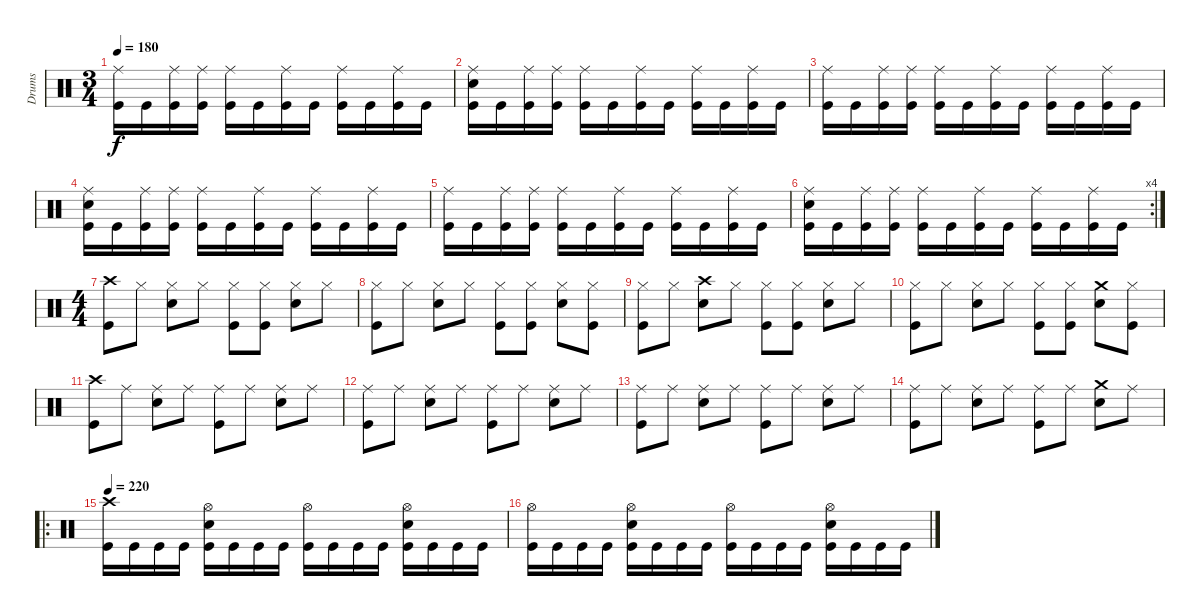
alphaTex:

\track ("Drums" "Drums") {instrument percussion}
\staff {score}
\articulation defaults
\ts (3 4)
\tempo 180
\clef neutral
\ks c
("Ride (middle)" "Kick (hit)").16{dy f} "Kick (hit)".16 ("Ride (middle)" "Kick (hit)").16 ("Ride (middle)" "Kick (hit)").16 ("Ride (middle)" "Kick (hit)").16 "Kick (hit)".16 ("Ride (middle)" "Kick (hit)").16 "Kick (hit)".16 ("Ride (middle)" "Kick (hit)").16 "Kick (hit)".16 ("Ride (middle)" "Kick (hit)").16 "Kick (hit)".16 |
("Ride (middle)" "Snare (hit) 2" "Kick (hit)").16 "Kick (hit)".16 ("Ride (middle)" "Kick (hit)").16 ("Ride (middle)" "Kick (hit)").16 ("Ride (middle)" "Kick (hit)").16 "Kick (hit)".16 ("Ride (middle)" "Kick (hit)").16 "Kick (hit)".16 ("Ride (middle)" "Kick (hit)").16 "Kick (hit)".16 ("Ride (middle)" "Kick (hit)").16 "Kick (hit)".16 |
("Ride (middle)" "Kick (hit)").16 "Kick (hit)".16 ("Ride (middle)" "Kick (hit)").16 ("Ride (middle)" "Kick (hit)").16 ("Ride (middle)" "Kick (hit)").16 "Kick (hit)".16 ("Ride (middle)" "Kick (hit)").16 "Kick (hit)".16 ("Ride (middle)" "Kick (hit)").16 "Kick (hit)".16 ("Ride (middle)" "Kick (hit)").16 "Kick (hit)".16 |
("Ride (middle)" "Snare (hit) 2" "Kick (hit)").16 "Kick (hit)".16 ("Ride (middle)" "Kick (hit)").16 ("Ride (middle)" "Kick (hit)").16 ("Ride (middle)" "Kick (hit)").16 "Kick (hit)".16 ("Ride (middle)" "Kick (hit)").16 "Kick (hit)".16 ("Ride (middle)" "Kick (hit)").16 "Kick (hit)".16 ("Ride (middle)" "Kick (hit)").16 "Kick (hit)".16 |
("Ride (middle)" "Kick (hit)").16 "Kick (hit)".16 ("Ride (middle)" "Kick (hit)").16 ("Ride (middle)" "Kick (hit)").16 ("Ride (middle)" "Kick (hit)").16 "Kick (hit)".16 ("Ride (middle)" "Kick (hit)").16 "Kick (hit)".16 ("Ride (middle)" "Kick (hit)").16 "Kick (hit)".16 ("Ride (middle)" "Kick (hit)").16 "Kick (hit)".16 |
\rc 4
("Ride (middle)" "Snare (hit) 2" "Kick (hit)").16 "Kick (hit)".16 ("Ride (middle)" "Kick (hit)").16 ("Ride (middle)" "Kick (hit)").16 ("Ride (middle)" "Kick (hit)").16 "Kick (hit)".16 ("Ride (middle)" "Kick (hit)").16 "Kick (hit)".16 ("Ride (middle)" "Kick (hit)").16 "Kick (hit)".16 ("Ride (middle)" "Kick (hit)").16 "Kick (hit)".16 |
\ts (4 4)
("Crash high (hit)" "Kick (hit)").8 "Hi-Hat (closed)".8 ("Hi-Hat (closed)" "Snare (hit) 2").8 "Hi-Hat (closed)".8 ("Hi-Hat (closed)" "Kick (hit)").8 ("Hi-Hat (closed)" "Kick (hit)").8 ("Hi-Hat (closed)" "Snare (hit) 2").8 "Hi-Hat (closed)".8 |
("Hi-Hat (closed)" "Kick (hit)").8 "Hi-Hat (closed)".8 ("Hi-Hat (closed)" "Snare (hit) 2").8 "Hi-Hat (closed)".8 ("Hi-Hat (closed)" "Kick (hit)").8 ("Hi-Hat (closed)" "Kick (hit)").8 ("Hi-Hat (closed)" "Snare (hit) 2").8 ("Hi-Hat (closed)" "Kick (hit)").8 |
("Hi-Hat (closed)" "Kick (hit)").8 "Hi-Hat (closed)".8 ("Crash high (hit)" "Snare (hit) 2").8 "Hi-Hat (closed)".8 ("Hi-Hat (closed)" "Kick (hit)").8 ("Hi-Hat (closed)" "Kick (hit)").8 ("Hi-Hat (closed)" "Snare (hit) 2").8 "Hi-Hat (closed)".8 |
("Hi-Hat (closed)" "Kick (hit)").8 "Hi-Hat (closed)".8 ("Hi-Hat (closed)" "Snare (hit) 2").8 "Hi-Hat (closed)".8 ("Hi-Hat (closed)" "Kick (hit)").8 ("Hi-Hat (closed)" "Kick (hit)").8 ("Crash medium (hit)" "Snare (hit) 2").8 ("Hi-Hat (closed)" "Kick (hit)").8 |
("Crash high (hit)" "Kick (hit)").8 "Ride (middle)".8 ("Ride (middle)" "Snare (hit) 2").8 "Ride (middle)".8 ("Ride (middle)" "Kick (hit)").8 "Ride (middle)".8 ("Ride (middle)" "Snare (hit) 2").8 "Ride (middle)".8 |
("Ride (middle)" "Kick (hit)").8 "Ride (middle)".8 ("Ride (middle)" "Snare (hit) 2").8 "Ride (middle)".8 ("Ride (middle)" "Kick (hit)").8 "Ride (middle)".8 ("Ride (middle)" "Snare (hit) 2").8 "Ride (middle)".8 |
("Ride (middle)" "Kick (hit)").8 "Ride (middle)".8 ("Ride (middle)" "Snare (hit) 2").8 "Ride (middle)".8 ("Ride (middle)" "Kick (hit)").8 "Ride (middle)".8 ("Ride (middle)" "Snare (hit) 2").8 "Ride (middle)".8 |
("Ride (middle)" "Kick (hit)").8 "Ride (middle)".8 ("Ride (middle)" "Snare (hit) 2").8 "Ride (middle)".8 ("Ride (middle)" "Kick (hit)").8 "Ride (middle)".8 ("Crash medium (hit)" "Snare (hit) 2").8 "Ride (middle)".8 |
\ro
\tempo 220
("Crash high (hit)" "Kick (hit)").16 "Kick (hit)".16 "Kick (hit)".16 "Kick (hit)".16 ("Hi-Hat (open)" "Snare (hit) 2" "Kick (hit)").16 "Kick (hit)".16 "Kick (hit)".16 "Kick (hit)".16 ("Hi-Hat (open)" "Kick (hit)").16 "Kick (hit)".16 "Kick (hit)".16 "Kick (hit)".16 ("Hi-Hat (open)" "Snare (hit) 2" "Kick (hit)").16 "Kick (hit)".16 "Kick (hit)".16 "Kick (hit)".16 |
("Hi-Hat (open)" "Kick (hit)").16 "Kick (hit)".16 "Kick (hit)".16 "Kick (hit)".16 ("Hi-Hat (open)" "Snare (hit) 2" "Kick (hit)").16 "Kick (hit)".16 "Kick (hit)".16 "Kick (hit)".16 ("Hi-Hat (open)" "Kick (hit)").16 "Kick (hit)".16 "Kick (hit)".16 "Kick (hit)".16 ("Hi-Hat (open)" "Snare (hit) 2" "Kick (hit)").16 "Kick (hit)".16 "Kick (hit)".16 "Kick (hit)".16
